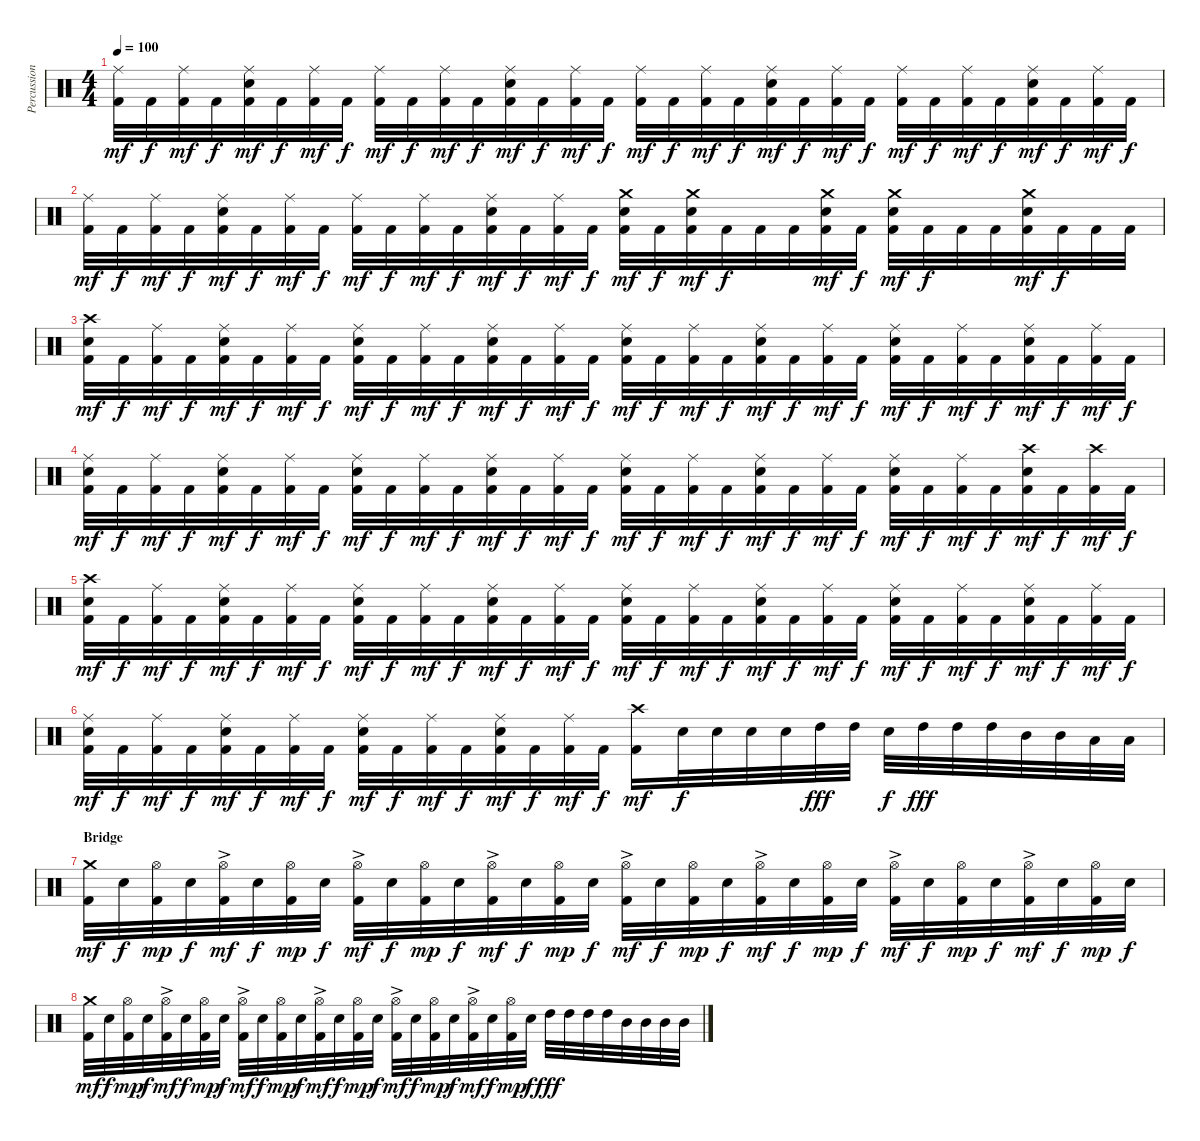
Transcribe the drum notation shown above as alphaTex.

\track ("Percussion" "Percussion") {instrument percussion}
\staff {score}
\articulation defaults
\ts (4 4)
\tempo 100
\clef neutral
\ks c
("Ride (middle)" "Kick (hit) 2").32{dy mf} "Kick (hit) 2".32{dy f} ("Ride (middle)" "Kick (hit) 2").32{dy mf} "Kick (hit) 2".32{dy f} ("Ride (middle)" "Electric Snare (hit)" "Kick (hit) 2").32{dy mf} "Kick (hit) 2".32{dy f} ("Ride (middle)" "Kick (hit) 2").32{dy mf} "Kick (hit) 2".32{dy f} ("Ride (middle)" "Kick (hit) 2").32{dy mf} "Kick (hit) 2".32{dy f} ("Ride (middle)" "Kick (hit) 2").32{dy mf} "Kick (hit) 2".32{dy f} ("Ride (middle)" "Electric Snare (hit)" "Kick (hit) 2").32{dy mf} "Kick (hit) 2".32{dy f} ("Ride (middle)" "Kick (hit) 2").32{dy mf} "Kick (hit) 2".32{dy f} ("Ride (middle)" "Kick (hit) 2").32{dy mf} "Kick (hit) 2".32{dy f} ("Ride (middle)" "Kick (hit) 2").32{dy mf} "Kick (hit) 2".32{dy f} ("Ride (middle)" "Electric Snare (hit)" "Kick (hit) 2").32{dy mf} "Kick (hit) 2".32{dy f} ("Ride (middle)" "Kick (hit) 2").32{dy mf} "Kick (hit) 2".32{dy f} ("Ride (middle)" "Kick (hit) 2").32{dy mf} "Kick (hit) 2".32{dy f} ("Ride (middle)" "Kick (hit) 2").32{dy mf} "Kick (hit) 2".32{dy f} ("Ride (middle)" "Electric Snare (hit)" "Kick (hit) 2").32{dy mf} "Kick (hit) 2".32{dy f} ("Ride (middle)" "Kick (hit) 2").32{dy mf} "Kick (hit) 2".32{dy f} |
("Ride (middle)" "Kick (hit) 2").32{dy mf} "Kick (hit) 2".32{dy f} ("Ride (middle)" "Kick (hit) 2").32{dy mf} "Kick (hit) 2".32{dy f} ("Ride (middle)" "Electric Snare (hit)" "Kick (hit) 2").32{dy mf} "Kick (hit) 2".32{dy f} ("Ride (middle)" "Kick (hit) 2").32{dy mf} "Kick (hit) 2".32{dy f} ("Ride (middle)" "Kick (hit) 2").32{dy mf} "Kick (hit) 2".32{dy f} ("Ride (middle)" "Kick (hit) 2").32{dy mf} "Kick (hit) 2".32{dy f} ("Ride (middle)" "Electric Snare (hit)" "Kick (hit) 2").32{dy mf} "Kick (hit) 2".32{dy f} ("Ride (middle)" "Kick (hit) 2").32{dy mf} "Kick (hit) 2".32{dy f} ("Crash medium (hit)" "Electric Snare (hit)" "Kick (hit) 2").32{dy mf} "Kick (hit) 2".32{dy f} ("Crash medium (hit)" "Electric Snare (hit)" "Kick (hit) 2").32{dy mf} "Kick (hit) 2".32{dy f} "Kick (hit) 2".32 "Kick (hit) 2".32 ("Crash medium (hit)" "Electric Snare (hit)" "Kick (hit) 2").32{dy mf} "Kick (hit) 2".32{dy f} ("Crash medium (hit)" "Electric Snare (hit)" "Kick (hit) 2").32{dy mf} "Kick (hit) 2".32{dy f} "Kick (hit) 2".32 "Kick (hit) 2".32 ("Crash medium (hit)" "Electric Snare (hit)" "Kick (hit) 2").32{dy mf} "Kick (hit) 2".32{dy f} "Kick (hit) 2".32 "Kick (hit) 2".32 |
("Crash high (hit)" "Electric Snare (hit)" "Kick (hit) 2").32{dy mf} "Kick (hit) 2".32{dy f} ("Ride (middle)" "Kick (hit) 2").32{dy mf} "Kick (hit) 2".32{dy f} ("Ride (middle)" "Electric Snare (hit)" "Kick (hit) 2").32{dy mf} "Kick (hit) 2".32{dy f} ("Ride (middle)" "Kick (hit) 2").32{dy mf} "Kick (hit) 2".32{dy f} ("Ride (middle)" "Electric Snare (hit)" "Kick (hit) 2").32{dy mf} "Kick (hit) 2".32{dy f} ("Ride (middle)" "Kick (hit) 2").32{dy mf} "Kick (hit) 2".32{dy f} ("Ride (middle)" "Electric Snare (hit)" "Kick (hit) 2").32{dy mf} "Kick (hit) 2".32{dy f} ("Ride (middle)" "Kick (hit) 2").32{dy mf} "Kick (hit) 2".32{dy f} ("Ride (middle)" "Electric Snare (hit)" "Kick (hit) 2").32{dy mf} "Kick (hit) 2".32{dy f} ("Ride (middle)" "Kick (hit) 2").32{dy mf} "Kick (hit) 2".32{dy f} ("Ride (middle)" "Electric Snare (hit)" "Kick (hit) 2").32{dy mf} "Kick (hit) 2".32{dy f} ("Ride (middle)" "Kick (hit) 2").32{dy mf} "Kick (hit) 2".32{dy f} ("Ride (middle)" "Electric Snare (hit)" "Kick (hit) 2").32{dy mf} "Kick (hit) 2".32{dy f} ("Ride (middle)" "Kick (hit) 2").32{dy mf} "Kick (hit) 2".32{dy f} ("Ride (middle)" "Electric Snare (hit)" "Kick (hit) 2").32{dy mf} "Kick (hit) 2".32{dy f} ("Ride (middle)" "Kick (hit) 2").32{dy mf} "Kick (hit) 2".32{dy f} |
("Ride (middle)" "Electric Snare (hit)" "Kick (hit) 2").32{dy mf} "Kick (hit) 2".32{dy f} ("Ride (middle)" "Kick (hit) 2").32{dy mf} "Kick (hit) 2".32{dy f} ("Ride (middle)" "Electric Snare (hit)" "Kick (hit) 2").32{dy mf} "Kick (hit) 2".32{dy f} ("Ride (middle)" "Kick (hit) 2").32{dy mf} "Kick (hit) 2".32{dy f} ("Ride (middle)" "Electric Snare (hit)" "Kick (hit) 2").32{dy mf} "Kick (hit) 2".32{dy f} ("Ride (middle)" "Kick (hit) 2").32{dy mf} "Kick (hit) 2".32{dy f} ("Ride (middle)" "Electric Snare (hit)" "Kick (hit) 2").32{dy mf} "Kick (hit) 2".32{dy f} ("Ride (middle)" "Kick (hit) 2").32{dy mf} "Kick (hit) 2".32{dy f} ("Ride (middle)" "Electric Snare (hit)" "Kick (hit) 2").32{dy mf} "Kick (hit) 2".32{dy f} ("Ride (middle)" "Kick (hit) 2").32{dy mf} "Kick (hit) 2".32{dy f} ("Ride (middle)" "Electric Snare (hit)" "Kick (hit) 2").32{dy mf} "Kick (hit) 2".32{dy f} ("Ride (middle)" "Kick (hit) 2").32{dy mf} "Kick (hit) 2".32{dy f} ("Ride (middle)" "Electric Snare (hit)" "Kick (hit) 2").32{dy mf} "Kick (hit) 2".32{dy f} ("Ride (middle)" "Kick (hit) 2").32{dy mf} "Kick (hit) 2".32{dy f} ("Crash high (hit)" "Electric Snare (hit)" "Kick (hit) 2").32{dy mf} "Kick (hit) 2".32{dy f} ("Crash high (hit)" "Kick (hit) 2").32{dy mf} "Kick (hit) 2".32{dy f} |
("Crash high (hit)" "Electric Snare (hit)" "Kick (hit) 2").32{dy mf} "Kick (hit) 2".32{dy f} ("Ride (middle)" "Kick (hit) 2").32{dy mf} "Kick (hit) 2".32{dy f} ("Ride (middle)" "Electric Snare (hit)" "Kick (hit) 2").32{dy mf} "Kick (hit) 2".32{dy f} ("Ride (middle)" "Kick (hit) 2").32{dy mf} "Kick (hit) 2".32{dy f} ("Ride (middle)" "Electric Snare (hit)" "Kick (hit) 2").32{dy mf} "Kick (hit) 2".32{dy f} ("Ride (middle)" "Kick (hit) 2").32{dy mf} "Kick (hit) 2".32{dy f} ("Ride (middle)" "Electric Snare (hit)" "Kick (hit) 2").32{dy mf} "Kick (hit) 2".32{dy f} ("Ride (middle)" "Kick (hit) 2").32{dy mf} "Kick (hit) 2".32{dy f} ("Ride (middle)" "Electric Snare (hit)" "Kick (hit) 2").32{dy mf} "Kick (hit) 2".32{dy f} ("Ride (middle)" "Kick (hit) 2").32{dy mf} "Kick (hit) 2".32{dy f} ("Ride (middle)" "Electric Snare (hit)" "Kick (hit) 2").32{dy mf} "Kick (hit) 2".32{dy f} ("Ride (middle)" "Kick (hit) 2").32{dy mf} "Kick (hit) 2".32{dy f} ("Ride (middle)" "Electric Snare (hit)" "Kick (hit) 2").32{dy mf} "Kick (hit) 2".32{dy f} ("Ride (middle)" "Kick (hit) 2").32{dy mf} "Kick (hit) 2".32{dy f} ("Ride (middle)" "Electric Snare (hit)" "Kick (hit) 2").32{dy mf} "Kick (hit) 2".32{dy f} ("Ride (middle)" "Kick (hit) 2").32{dy mf} "Kick (hit) 2".32{dy f} |
("Ride (middle)" "Electric Snare (hit)" "Kick (hit) 2").32{dy mf} "Kick (hit) 2".32{dy f} ("Ride (middle)" "Kick (hit) 2").32{dy mf} "Kick (hit) 2".32{dy f} ("Ride (middle)" "Electric Snare (hit)" "Kick (hit) 2").32{dy mf} "Kick (hit) 2".32{dy f} ("Ride (middle)" "Kick (hit) 2").32{dy mf} "Kick (hit) 2".32{dy f} ("Ride (middle)" "Electric Snare (hit)" "Kick (hit) 2").32{dy mf} "Kick (hit) 2".32{dy f} ("Ride (middle)" "Kick (hit) 2").32{dy mf} "Kick (hit) 2".32{dy f} ("Ride (middle)" "Electric Snare (hit)" "Kick (hit) 2").32{dy mf} "Kick (hit) 2".32{dy f} ("Ride (middle)" "Kick (hit) 2").32{dy mf} "Kick (hit) 2".32{dy f} ("Crash high (hit)" "Kick (hit) 2").16{dy mf} "Electric Snare (hit)".32{dy f} "Electric Snare (hit)".32 "Electric Snare (hit)".32 "Electric Snare (hit)".32 "High Tom (hit)".32{dy fff} "High Tom (hit)".32 "Electric Snare (hit)".32{dy f} "High Tom (hit)".32{dy fff} "High Tom (hit)".32 "High Tom (hit)".32 "Mid Tom (hit)".32 "Mid Tom (hit)".32 "Low Tom (hit)".32 "Low Tom (hit)".32 |
\section ("" "Bridge")
("Crash medium (hit)" "Kick (hit) 2").32{dy mf} "Electric Snare (hit)".32{dy f} ("Hi-Hat (open)" "Kick (hit) 2").32{dy mp} "Electric Snare (hit)".32{dy f} ("Hi-Hat (open)"{ac} "Kick (hit) 2").32{dy mf} "Electric Snare (hit)".32{dy f} ("Hi-Hat (open)" "Kick (hit) 2").32{dy mp} "Electric Snare (hit)".32{dy f} ("Hi-Hat (open)"{ac} "Kick (hit) 2").32{dy mf} "Electric Snare (hit)".32{dy f} ("Hi-Hat (open)" "Kick (hit) 2").32{dy mp} "Electric Snare (hit)".32{dy f} ("Hi-Hat (open)"{ac} "Kick (hit) 2").32{dy mf} "Electric Snare (hit)".32{dy f} ("Hi-Hat (open)" "Kick (hit) 2").32{dy mp} "Electric Snare (hit)".32{dy f} ("Hi-Hat (open)"{ac} "Kick (hit) 2").32{dy mf} "Electric Snare (hit)".32{dy f} ("Hi-Hat (open)" "Kick (hit) 2").32{dy mp} "Electric Snare (hit)".32{dy f} ("Hi-Hat (open)"{ac} "Kick (hit) 2").32{dy mf} "Electric Snare (hit)".32{dy f} ("Hi-Hat (open)" "Kick (hit) 2").32{dy mp} "Electric Snare (hit)".32{dy f} ("Hi-Hat (open)"{ac} "Kick (hit) 2").32{dy mf} "Electric Snare (hit)".32{dy f} ("Hi-Hat (open)" "Kick (hit) 2").32{dy mp} "Electric Snare (hit)".32{dy f} ("Hi-Hat (open)"{ac} "Kick (hit) 2").32{dy mf} "Electric Snare (hit)".32{dy f} ("Hi-Hat (open)" "Kick (hit) 2").32{dy mp} "Electric Snare (hit)".32{dy f} |
("Crash medium (hit)" "Kick (hit) 2").32{dy mf} "Electric Snare (hit)".32{dy f} ("Hi-Hat (open)" "Kick (hit) 2").32{dy mp} "Electric Snare (hit)".32{dy f} ("Hi-Hat (open)"{ac} "Kick (hit) 2").32{dy mf} "Electric Snare (hit)".32{dy f} ("Hi-Hat (open)" "Kick (hit) 2").32{dy mp} "Electric Snare (hit)".32{dy f} ("Hi-Hat (open)"{ac} "Kick (hit) 2").32{dy mf} "Electric Snare (hit)".32{dy f} ("Hi-Hat (open)" "Kick (hit) 2").32{dy mp} "Electric Snare (hit)".32{dy f} ("Hi-Hat (open)"{ac} "Kick (hit) 2").32{dy mf} "Electric Snare (hit)".32{dy f} ("Hi-Hat (open)" "Kick (hit) 2").32{dy mp} "Electric Snare (hit)".32{dy f} ("Hi-Hat (open)"{ac} "Kick (hit) 2").32{dy mf} "Electric Snare (hit)".32{dy f} ("Hi-Hat (open)" "Kick (hit) 2").32{dy mp} "Electric Snare (hit)".32{dy f} ("Hi-Hat (open)"{ac} "Kick (hit) 2").32{dy mf} "Electric Snare (hit)".32{dy f} ("Hi-Hat (open)" "Kick (hit) 2").32{dy mp} "Electric Snare (hit)".32{dy f} "High Tom (hit)".32{dy fff} "High Tom (hit)".32 "High Tom (hit)".32 "High Tom (hit)".32 "Mid Tom (hit)".32 "Mid Tom (hit)".32 "Mid Tom (hit)".32 "Mid Tom (hit)".32
